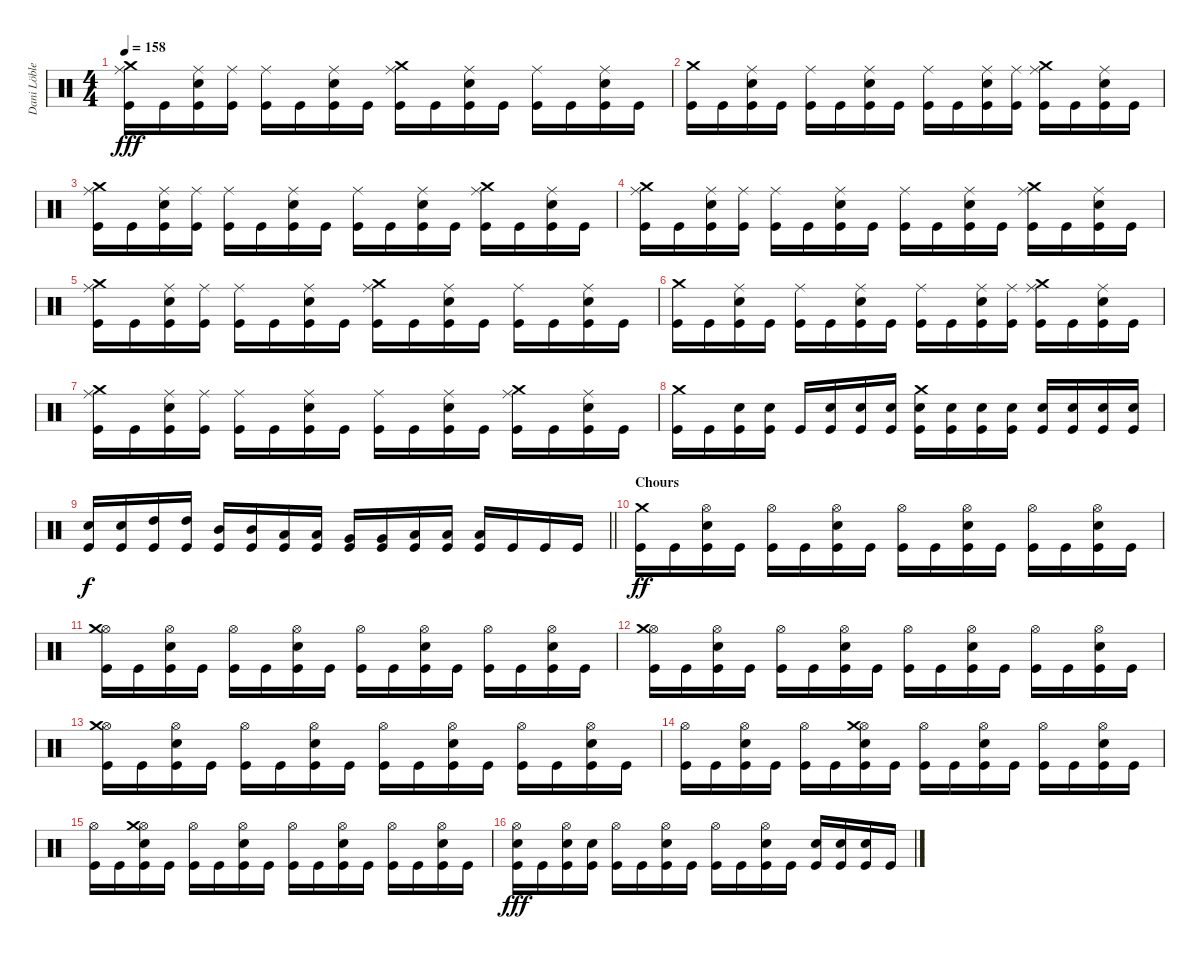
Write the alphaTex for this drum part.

\track ("Dani Löble" "Dani Löble") {instrument percussion}
\staff {score}
\articulation defaults
\ts (4 4)
\tempo 158
\clef neutral
\ks c
("Crash medium (hit)" "Ride (middle)" "Kick (hit)").16{dy fff} "Kick (hit)".16 ("Ride (middle)" "Electric Snare (hit)" "Kick (hit)").16 ("Ride (middle)" "Kick (hit)").16 ("Ride (middle)" "Kick (hit)").16 "Kick (hit)".16 ("Ride (middle)" "Electric Snare (hit)" "Kick (hit)").16 "Kick (hit)".16 ("Ride (middle)" "Crash medium (hit)" "Kick (hit)").16 "Kick (hit)".16 ("Ride (middle)" "Electric Snare (hit)" "Kick (hit)").16 "Kick (hit)".16 ("Ride (middle)" "Kick (hit)").16 "Kick (hit)".16 ("Ride (middle)" "Electric Snare (hit)" "Kick (hit)").16 "Kick (hit)".16 |
("Crash medium (hit)" "Kick (hit)").16 "Kick (hit)".16 ("Ride (middle)" "Electric Snare (hit)" "Kick (hit)").16 "Kick (hit)".16 ("Ride (middle)" "Kick (hit)").16 "Kick (hit)".16 ("Ride (middle)" "Electric Snare (hit)" "Kick (hit)").16 "Kick (hit)".16 ("Ride (middle)" "Kick (hit)").16 "Kick (hit)".16 ("Ride (middle)" "Electric Snare (hit)" "Kick (hit)").16 ("Ride (middle)" "Kick (hit)").16 ("Ride (middle)" "Crash medium (hit)" "Kick (hit)").16 "Kick (hit)".16 ("Ride (middle)" "Electric Snare (hit)" "Kick (hit)").16 "Kick (hit)".16 |
("Crash medium (hit)" "Ride (middle)" "Kick (hit)").16 "Kick (hit)".16 ("Ride (middle)" "Electric Snare (hit)" "Kick (hit)").16 ("Ride (middle)" "Kick (hit)").16 ("Ride (middle)" "Kick (hit)").16 "Kick (hit)".16 ("Ride (middle)" "Electric Snare (hit)" "Kick (hit)").16 "Kick (hit)".16 ("Ride (middle)" "Kick (hit)").16 "Kick (hit)".16 ("Ride (middle)" "Electric Snare (hit)" "Kick (hit)").16 "Kick (hit)".16 ("Ride (middle)" "Crash medium (hit)" "Kick (hit)").16 "Kick (hit)".16 ("Ride (middle)" "Electric Snare (hit)" "Kick (hit)").16 "Kick (hit)".16 |
("Crash medium (hit)" "Ride (middle)" "Kick (hit)").16 "Kick (hit)".16 ("Ride (middle)" "Electric Snare (hit)" "Kick (hit)").16 ("Ride (middle)" "Kick (hit)").16 ("Ride (middle)" "Kick (hit)").16 "Kick (hit)".16 ("Ride (middle)" "Electric Snare (hit)" "Kick (hit)").16 "Kick (hit)".16 ("Ride (middle)" "Kick (hit)").16 "Kick (hit)".16 ("Ride (middle)" "Electric Snare (hit)" "Kick (hit)").16 "Kick (hit)".16 ("Ride (middle)" "Crash medium (hit)" "Kick (hit)").16 "Kick (hit)".16 ("Ride (middle)" "Electric Snare (hit)" "Kick (hit)").16 "Kick (hit)".16 |
("Crash medium (hit)" "Ride (middle)" "Kick (hit)").16 "Kick (hit)".16 ("Ride (middle)" "Electric Snare (hit)" "Kick (hit)").16 ("Ride (middle)" "Kick (hit)").16 ("Ride (middle)" "Kick (hit)").16 "Kick (hit)".16 ("Ride (middle)" "Electric Snare (hit)" "Kick (hit)").16 "Kick (hit)".16 ("Ride (middle)" "Crash medium (hit)" "Kick (hit)").16 "Kick (hit)".16 ("Ride (middle)" "Electric Snare (hit)" "Kick (hit)").16 "Kick (hit)".16 ("Ride (middle)" "Kick (hit)").16 "Kick (hit)".16 ("Ride (middle)" "Electric Snare (hit)" "Kick (hit)").16 "Kick (hit)".16 |
("Crash medium (hit)" "Kick (hit)").16 "Kick (hit)".16 ("Ride (middle)" "Electric Snare (hit)" "Kick (hit)").16 "Kick (hit)".16 ("Ride (middle)" "Kick (hit)").16 "Kick (hit)".16 ("Ride (middle)" "Electric Snare (hit)" "Kick (hit)").16 "Kick (hit)".16 ("Ride (middle)" "Kick (hit)").16 "Kick (hit)".16 ("Ride (middle)" "Electric Snare (hit)" "Kick (hit)").16 ("Ride (middle)" "Kick (hit)").16 ("Ride (middle)" "Crash medium (hit)" "Kick (hit)").16 "Kick (hit)".16 ("Ride (middle)" "Electric Snare (hit)" "Kick (hit)").16 "Kick (hit)".16 |
("Crash medium (hit)" "Ride (middle)" "Kick (hit)").16 "Kick (hit)".16 ("Ride (middle)" "Electric Snare (hit)" "Kick (hit)").16 ("Ride (middle)" "Kick (hit)").16 ("Ride (middle)" "Kick (hit)").16 "Kick (hit)".16 ("Ride (middle)" "Electric Snare (hit)" "Kick (hit)").16 "Kick (hit)".16 ("Ride (middle)" "Kick (hit)").16 "Kick (hit)".16 ("Ride (middle)" "Electric Snare (hit)" "Kick (hit)").16 "Kick (hit)".16 ("Ride (middle)" "Crash medium (hit)" "Kick (hit)").16 "Kick (hit)".16 ("Ride (middle)" "Electric Snare (hit)" "Kick (hit)").16 "Kick (hit)".16 |
("Crash medium (hit)" "Kick (hit)").16 "Kick (hit)".16 ("Electric Snare (hit)" "Kick (hit)").16 ("Electric Snare (hit)" "Kick (hit)").16 "Kick (hit)".16 ("Electric Snare (hit)" "Kick (hit)").16 ("Electric Snare (hit)" "Kick (hit)").16 ("Electric Snare (hit)" "Kick (hit)").16 ("Crash medium (hit)" "Electric Snare (hit)" "Kick (hit)").16 ("Electric Snare (hit)" "Kick (hit)").16 ("Electric Snare (hit)" "Kick (hit)").16 ("Electric Snare (hit)" "Kick (hit)").16 ("Electric Snare (hit)" "Kick (hit)").16 ("Electric Snare (hit)" "Kick (hit)").16 ("Electric Snare (hit)" "Kick (hit)").16 ("Electric Snare (hit)" "Kick (hit)").16 |
\barLineRight lightlight
("Electric Snare (hit)" "Kick (hit)").16{dy f} ("Electric Snare (hit)" "Kick (hit)").16 ("High Tom (hit)" "Kick (hit)").16 ("High Tom (hit)" "Kick (hit)").16 ("Mid Tom (hit)" "Kick (hit)").16 ("Mid Tom (hit)" "Kick (hit)").16 ("Low Tom (hit)" "Kick (hit)").16 ("Low Tom (hit)" "Kick (hit)").16 ("Very Low Tom (hit)" "Kick (hit)").16 ("Very Low Tom (hit)" "Kick (hit)").16 ("Low Floor Tom (hit)" "Kick (hit)").16 ("Low Floor Tom (hit)" "Kick (hit)").16 ("Low Floor Tom (hit)" "Kick (hit)").16 "Kick (hit)".16 "Kick (hit)".16 "Kick (hit)".16 |
\section ("" "Chours")
("Crash medium (hit)" "Kick (hit)").16{dy ff} "Kick (hit)".16 ("Hi-Hat (open)" "Electric Snare (hit)" "Kick (hit)").16 "Kick (hit)".16 ("Hi-Hat (open)" "Kick (hit)").16 "Kick (hit)".16 ("Hi-Hat (open)" "Electric Snare (hit)" "Kick (hit)").16 "Kick (hit)".16 ("Hi-Hat (open)" "Kick (hit)").16 "Kick (hit)".16 ("Hi-Hat (open)" "Electric Snare (hit)" "Kick (hit)").16 "Kick (hit)".16 ("Hi-Hat (open)" "Kick (hit)").16 "Kick (hit)".16 ("Hi-Hat (open)" "Electric Snare (hit)" "Kick (hit)").16 "Kick (hit)".16 |
("Hi-Hat (open)" "Crash medium (hit)" "Kick (hit)").16 "Kick (hit)".16 ("Hi-Hat (open)" "Electric Snare (hit)" "Kick (hit)").16 "Kick (hit)".16 ("Hi-Hat (open)" "Kick (hit)").16 "Kick (hit)".16 ("Hi-Hat (open)" "Electric Snare (hit)" "Kick (hit)").16 "Kick (hit)".16 ("Hi-Hat (open)" "Kick (hit)").16 "Kick (hit)".16 ("Hi-Hat (open)" "Electric Snare (hit)" "Kick (hit)").16 "Kick (hit)".16 ("Hi-Hat (open)" "Kick (hit)").16 "Kick (hit)".16 ("Hi-Hat (open)" "Electric Snare (hit)" "Kick (hit)").16 "Kick (hit)".16 |
("Hi-Hat (open)" "Crash medium (hit)" "Kick (hit)").16 "Kick (hit)".16 ("Hi-Hat (open)" "Electric Snare (hit)" "Kick (hit)").16 "Kick (hit)".16 ("Hi-Hat (open)" "Kick (hit)").16 "Kick (hit)".16 ("Hi-Hat (open)" "Electric Snare (hit)" "Kick (hit)").16 "Kick (hit)".16 ("Hi-Hat (open)" "Kick (hit)").16 "Kick (hit)".16 ("Hi-Hat (open)" "Electric Snare (hit)" "Kick (hit)").16 "Kick (hit)".16 ("Hi-Hat (open)" "Kick (hit)").16 "Kick (hit)".16 ("Hi-Hat (open)" "Electric Snare (hit)" "Kick (hit)").16 "Kick (hit)".16 |
("Hi-Hat (open)" "Crash medium (hit)" "Kick (hit)").16 "Kick (hit)".16 ("Hi-Hat (open)" "Electric Snare (hit)" "Kick (hit)").16 "Kick (hit)".16 ("Hi-Hat (open)" "Kick (hit)").16 "Kick (hit)".16 ("Hi-Hat (open)" "Electric Snare (hit)" "Kick (hit)").16 "Kick (hit)".16 ("Hi-Hat (open)" "Kick (hit)").16 "Kick (hit)".16 ("Hi-Hat (open)" "Electric Snare (hit)" "Kick (hit)").16 "Kick (hit)".16 ("Hi-Hat (open)" "Kick (hit)").16 "Kick (hit)".16 ("Hi-Hat (open)" "Electric Snare (hit)" "Kick (hit)").16 "Kick (hit)".16 |
("Hi-Hat (open)" "Kick (hit)").16 "Kick (hit)".16 ("Hi-Hat (open)" "Electric Snare (hit)" "Kick (hit)").16 "Kick (hit)".16 ("Hi-Hat (open)" "Kick (hit)").16 "Kick (hit)".16 ("Hi-Hat (open)" "Crash medium (hit)" "Electric Snare (hit)" "Kick (hit)").16 "Kick (hit)".16 ("Hi-Hat (open)" "Kick (hit)").16 "Kick (hit)".16 ("Hi-Hat (open)" "Electric Snare (hit)" "Kick (hit)").16 "Kick (hit)".16 ("Hi-Hat (open)" "Kick (hit)").16 "Kick (hit)".16 ("Hi-Hat (open)" "Electric Snare (hit)" "Kick (hit)").16 "Kick (hit)".16 |
("Hi-Hat (open)" "Kick (hit)").16 "Kick (hit)".16 ("Hi-Hat (open)" "Crash medium (hit)" "Electric Snare (hit)" "Kick (hit)").16 "Kick (hit)".16 ("Hi-Hat (open)" "Kick (hit)").16 "Kick (hit)".16 ("Hi-Hat (open)" "Electric Snare (hit)" "Kick (hit)").16 "Kick (hit)".16 ("Hi-Hat (open)" "Kick (hit)").16 "Kick (hit)".16 ("Hi-Hat (open)" "Electric Snare (hit)" "Kick (hit)").16 "Kick (hit)".16 ("Hi-Hat (open)" "Kick (hit)").16 "Kick (hit)".16 ("Hi-Hat (open)" "Electric Snare (hit)" "Kick (hit)").16 "Kick (hit)".16 |
("Hi-Hat (open)" "Electric Snare (hit)" "Kick (hit)").16{dy fff} "Kick (hit)".16 ("Hi-Hat (open)" "Electric Snare (hit)" "Kick (hit)").16 ("Electric Snare (hit)" "Kick (hit)").16 ("Hi-Hat (open)" "Kick (hit)").16 "Kick (hit)".16 ("Hi-Hat (open)" "Electric Snare (hit)" "Kick (hit)").16 "Kick (hit)".16 ("Hi-Hat (open)" "Kick (hit)").16 "Kick (hit)".16 ("Hi-Hat (open)" "Electric Snare (hit)" "Kick (hit)").16 "Kick (hit)".16 ("Electric Snare (hit)" "Kick (hit)").16 ("Electric Snare (hit)" "Kick (hit)").16 ("Electric Snare (hit)" "Kick (hit)").16 "Kick (hit)".16
